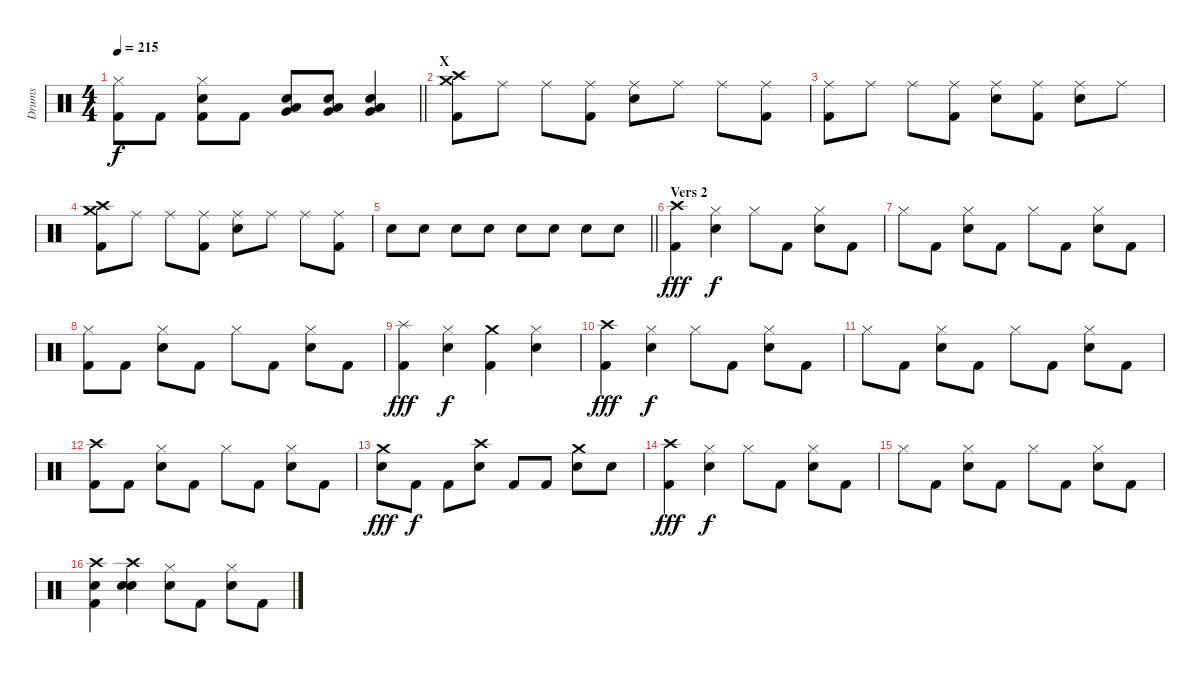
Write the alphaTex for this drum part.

\track ("Drums" "Drums") {instrument percussion}
\staff {score}
\articulation defaults
\ts (4 4)
\tempo 215
\clef neutral
\barLineRight lightlight
\ks c
("Hi-Hat (closed)" "Kick (hit) 2").8{dy f} "Kick (hit) 2".8 ("Hi-Hat (closed)" "Snare (hit) 2" "Kick (hit) 2").8 "Kick (hit) 2".8 ("Low Tom (hit)" "Very Low Tom (hit)" "Snare (hit) 2").8 ("Low Tom (hit)" "Very Low Tom (hit)" "Snare (hit) 2").8 ("Low Tom (hit)" "Very Low Tom (hit)" "Snare (hit) 2").4 |
\section ("" "X")
("Crash medium (hit)" "Crash high (hit)" "Kick (hit) 2").8 "Ride (middle)".8 "Ride (middle)".8 ("Ride (middle)" "Kick (hit) 2").8 ("Ride (middle)" "Snare (hit) 2").8 "Ride (middle)".8 "Ride (middle)".8 ("Ride (middle)" "Kick (hit) 2").8 |
("Ride (middle)" "Kick (hit) 2").8 "Ride (middle)".8 "Ride (middle)".8 ("Ride (middle)" "Kick (hit) 2").8 ("Ride (middle)" "Snare (hit) 2").8 ("Ride (middle)" "Kick (hit) 2").8 ("Ride (middle)" "Snare (hit) 2").8 "Ride (middle)".8 |
("Crash medium (hit)" "Crash high (hit)" "Kick (hit) 2").8 "Ride (middle)".8 "Ride (middle)".8 ("Ride (middle)" "Kick (hit) 2").8 ("Ride (middle)" "Snare (hit) 2").8 "Ride (middle)".8 "Ride (middle)".8 ("Ride (middle)" "Kick (hit) 2").8 |
\barLineRight lightlight "Snare (hit) 2".8 "Snare (hit) 2".8 "Snare (hit) 2".8 "Snare (hit) 2".8 "Snare (hit) 2".8 "Snare (hit) 2".8 "Snare (hit) 2".8 "Snare (hit) 2".8
|
\section ("" "Vers 2")
("Crash high (hit)" "Kick (hit) 2").4{dy fff} ("Hi-Hat (closed)" "Snare (hit) 2").4{dy f} "Hi-Hat (closed)".8 "Kick (hit) 2".8 ("Hi-Hat (closed)" "Snare (hit) 2").8 "Kick (hit) 2".8 |
"Hi-Hat (closed)".8 "Kick (hit) 2".8 ("Hi-Hat (closed)" "Snare (hit) 2").8 "Kick (hit) 2".8 "Hi-Hat (closed)".8 "Kick (hit) 2".8 ("Hi-Hat (closed)" "Snare (hit) 2").8 "Kick (hit) 2".8 |
("Hi-Hat (closed)" "Kick (hit) 2").8 "Kick (hit) 2".8 ("Hi-Hat (closed)" "Snare (hit) 2").8 "Kick (hit) 2".8 "Hi-Hat (closed)".8 "Kick (hit) 2".8 ("Hi-Hat (closed)" "Snare (hit) 2").8 "Kick (hit) 2".8 |
("Splash (hit)" "Kick (hit) 2").4{dy fff} ("Hi-Hat (closed)" "Snare (hit) 2").4{dy f} ("Crash medium (hit)" "Kick (hit) 2").4 ("Hi-Hat (closed)" "Snare (hit) 2").4 |
("Crash high (hit)" "Kick (hit) 2").4{dy fff} ("Hi-Hat (closed)" "Snare (hit) 2").4{dy f} "Hi-Hat (closed)".8 "Kick (hit) 2".8 ("Hi-Hat (closed)" "Snare (hit) 2").8 "Kick (hit) 2".8 |
"Hi-Hat (closed)".8 "Kick (hit) 2".8 ("Hi-Hat (closed)" "Snare (hit) 2").8 "Kick (hit) 2".8 "Hi-Hat (closed)".8 "Kick (hit) 2".8 ("Hi-Hat (closed)" "Snare (hit) 2").8 "Kick (hit) 2".8 |
("Crash high (hit)" "Kick (hit) 2").8 "Kick (hit) 2".8 ("Hi-Hat (closed)" "Snare (hit) 2").8 "Kick (hit) 2".8 "Hi-Hat (closed)".8 "Kick (hit) 2".8 ("Hi-Hat (closed)" "Snare (hit) 2").8 "Kick (hit) 2".8 |
("Crash medium (hit)" "Snare (hit) 2").8{dy fff} "Kick (hit) 2".8{dy f} "Kick (hit) 2".8 ("Crash high (hit)" "Snare (hit) 2").8 "Kick (hit) 2".8 "Kick (hit) 2".8 ("Crash medium (hit)" "Snare (hit) 2").8 "Snare (hit) 2".8 |
("Crash high (hit)" "Kick (hit) 2").4{dy fff} ("Hi-Hat (closed)" "Snare (hit) 2").4{dy f} "Hi-Hat (closed)".8 "Kick (hit) 2".8 ("Hi-Hat (closed)" "Snare (hit) 2").8 "Kick (hit) 2".8 |
"Hi-Hat (closed)".8 "Kick (hit) 2".8 ("Hi-Hat (closed)" "Snare (hit) 2").8 "Kick (hit) 2".8 "Hi-Hat (closed)".8 "Kick (hit) 2".8 ("Hi-Hat (closed)" "Snare (hit) 2").8 "Kick (hit) 2".8 |
("Crash high (hit)" "Snare (hit) 2" "Kick (hit) 2").4 ("Crash high (hit)" "Snare (hit) 2" "Snare (hit) 2").4 ("Hi-Hat (closed)" "Snare (hit) 2").8 "Kick (hit) 2".8 ("Hi-Hat (closed)" "Snare (hit) 2").8 "Kick (hit) 2".8
